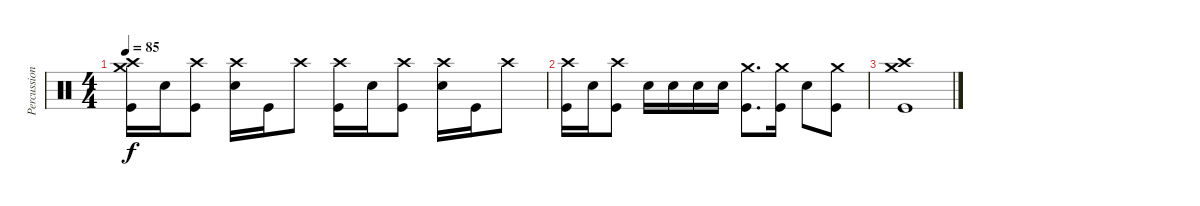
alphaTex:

\track ("Percussion" "Percussion") {instrument percussion}
\staff {score}
\articulation defaults
\ts (4 4)
\tempo 85
\clef neutral
\ks c
("Crash high (hit)" "Crash medium (hit)" "Kick (hit)").16{dy f} "Snare (hit) 2".16 ("Crash high (hit)" "Kick (hit)").8 ("Crash high (hit)" "Snare (hit) 2").16 "Kick (hit)".16 "Crash high (hit)".8 ("Crash high (hit)" "Kick (hit)").16 "Snare (hit) 2".16 ("Crash high (hit)" "Kick (hit)").8 ("Crash high (hit)" "Snare (hit) 2").16 "Kick (hit)".16 "Crash high (hit)".8 |
("Crash high (hit)" "Kick (hit)").16 "Snare (hit) 2".16 ("Crash high (hit)" "Kick (hit)").8 "Snare (hit) 2".16 "Snare (hit) 2".16 "Snare (hit) 2".16 "Snare (hit) 2".16 ("Crash medium (hit)" "Kick (hit)").8{d} ("Crash medium (hit)" "Kick (hit)").16 "Snare (hit) 2".8 ("Crash medium (hit)" "Kick (hit)").8 |
("Crash medium (hit)" "Crash high (hit)" "Kick (hit)").1
